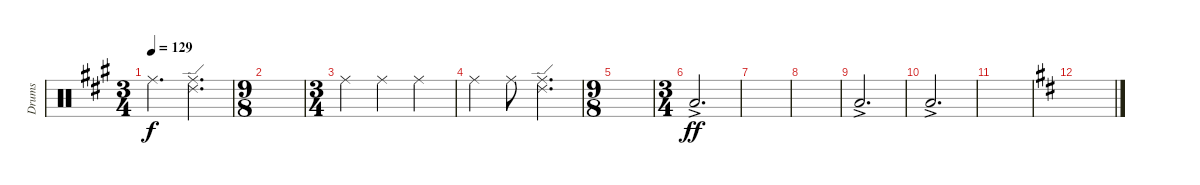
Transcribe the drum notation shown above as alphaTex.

\track ("Drums" "Drums") {instrument percussion}
\staff {score}
\articulation defaults
\ts (3 4)
\tempo 129
\clef neutral
\ks f#minor "Ride (middle)".4{d dy f}
("Ride (middle)" "Ride (edge) 2").4{d} |
\ts (9 8)
|
\ts (3 4)
"Ride (middle)".4 "Ride (middle)".4 "Ride (middle)".4 |
"Ride (middle)".4 "Ride (middle)".8 ("Ride (middle)" "Ride (edge) 2").4{d} |
\ts (9 8)
|
\ts (3 4)
"Low Floor Tom (hit)"{ac}.2{d dy ff} |
|
|
"Low Floor Tom (hit)"{ac}.2{d} |
"Low Floor Tom (hit)"{ac}.2{d} |
|
\ks bminor
